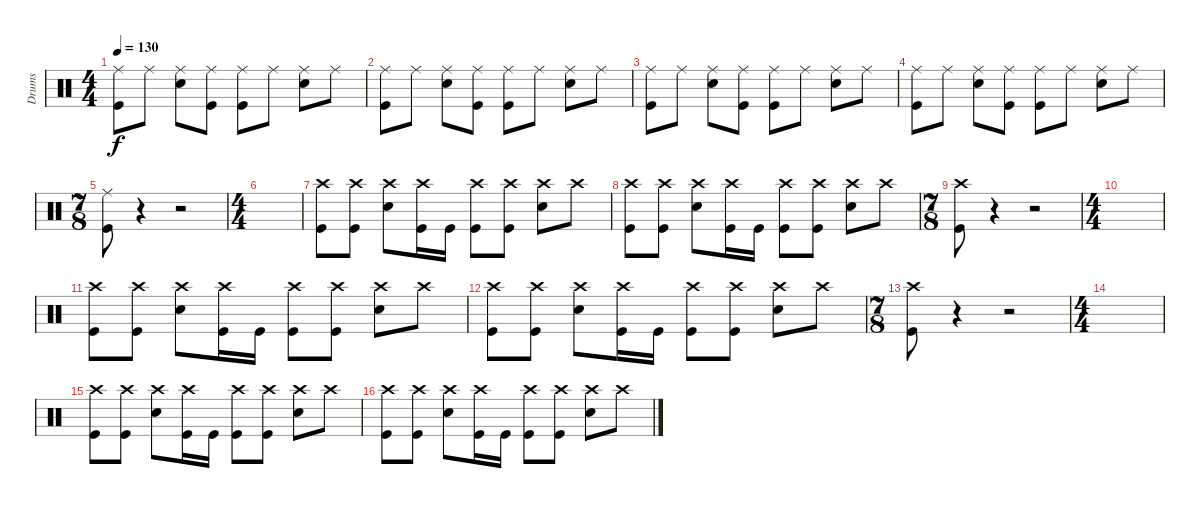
\track ("Drums" "Drums") {instrument percussion}
\staff {score}
\articulation defaults
\ts (4 4)
\tempo 130
\clef neutral
\ks c
("Ride (middle)" "Kick (hit)").8{dy f} "Ride (middle)".8 ("Ride (middle)" "Snare (hit) 2").8 ("Ride (middle)" "Kick (hit)").8 ("Ride (middle)" "Kick (hit)").8 "Ride (middle)".8 ("Ride (middle)" "Snare (hit) 2").8 "Ride (middle)".8 |
("Ride (middle)" "Kick (hit)").8 "Ride (middle)".8 ("Ride (middle)" "Snare (hit) 2").8 ("Ride (middle)" "Kick (hit)").8 ("Ride (middle)" "Kick (hit)").8 "Ride (middle)".8 ("Ride (middle)" "Snare (hit) 2").8 "Ride (middle)".8 |
("Ride (middle)" "Kick (hit)").8 "Ride (middle)".8 ("Ride (middle)" "Snare (hit) 2").8 ("Ride (middle)" "Kick (hit)").8 ("Ride (middle)" "Kick (hit)").8 "Ride (middle)".8 ("Ride (middle)" "Snare (hit) 2").8 "Ride (middle)".8 |
("Ride (middle)" "Kick (hit)").8 "Ride (middle)".8 ("Ride (middle)" "Snare (hit) 2").8 ("Ride (middle)" "Kick (hit)").8 ("Ride (middle)" "Kick (hit)").8 "Ride (middle)".8 ("Ride (middle)" "Snare (hit) 2").8 "Ride (middle)".8 |
\ts (7 8)
("Ride (middle)" "Kick (hit)").8 r.4 r.2 |
\ts (4 4)
|
("Crash high (hit)" "Kick (hit)").8 ("Crash high (hit)" "Kick (hit)").8 ("Crash high (hit)" "Snare (hit) 2").8 ("Crash high (hit)" "Kick (hit)").16 "Kick (hit)".16 ("Crash high (hit)" "Kick (hit)").8 ("Crash high (hit)" "Kick (hit)").8 ("Crash high (hit)" "Snare (hit) 2").8 "Crash high (hit)".8 |
("Crash high (hit)" "Kick (hit)").8 ("Crash high (hit)" "Kick (hit)").8 ("Crash high (hit)" "Snare (hit) 2").8 ("Crash high (hit)" "Kick (hit)").16 "Kick (hit)".16 ("Crash high (hit)" "Kick (hit)").8 ("Crash high (hit)" "Kick (hit)").8 ("Crash high (hit)" "Snare (hit) 2").8 "Crash high (hit)".8 |
\ts (7 8)
("Crash high (hit)" "Kick (hit)").8 r.4 r.2 |
\ts (4 4)
|
("Crash high (hit)" "Kick (hit)").8 ("Crash high (hit)" "Kick (hit)").8 ("Crash high (hit)" "Snare (hit) 2").8 ("Crash high (hit)" "Kick (hit)").16 "Kick (hit)".16 ("Crash high (hit)" "Kick (hit)").8 ("Crash high (hit)" "Kick (hit)").8 ("Crash high (hit)" "Snare (hit) 2").8 "Crash high (hit)".8 |
("Crash high (hit)" "Kick (hit)").8 ("Crash high (hit)" "Kick (hit)").8 ("Crash high (hit)" "Snare (hit) 2").8 ("Crash high (hit)" "Kick (hit)").16 "Kick (hit)".16 ("Crash high (hit)" "Kick (hit)").8 ("Crash high (hit)" "Kick (hit)").8 ("Crash high (hit)" "Snare (hit) 2").8 "Crash high (hit)".8 |
\ts (7 8)
("Crash high (hit)" "Kick (hit)").8 r.4 r.2 |
\ts (4 4)
|
("Crash high (hit)" "Kick (hit)").8 ("Crash high (hit)" "Kick (hit)").8 ("Crash high (hit)" "Snare (hit) 2").8 ("Crash high (hit)" "Kick (hit)").16 "Kick (hit)".16 ("Crash high (hit)" "Kick (hit)").8 ("Crash high (hit)" "Kick (hit)").8 ("Crash high (hit)" "Snare (hit) 2").8 "Crash high (hit)".8 |
("Crash high (hit)" "Kick (hit)").8 ("Crash high (hit)" "Kick (hit)").8 ("Crash high (hit)" "Snare (hit) 2").8 ("Crash high (hit)" "Kick (hit)").16 "Kick (hit)".16 ("Crash high (hit)" "Kick (hit)").8 ("Crash high (hit)" "Kick (hit)").8 ("Crash high (hit)" "Snare (hit) 2").8 "Crash high (hit)".8
